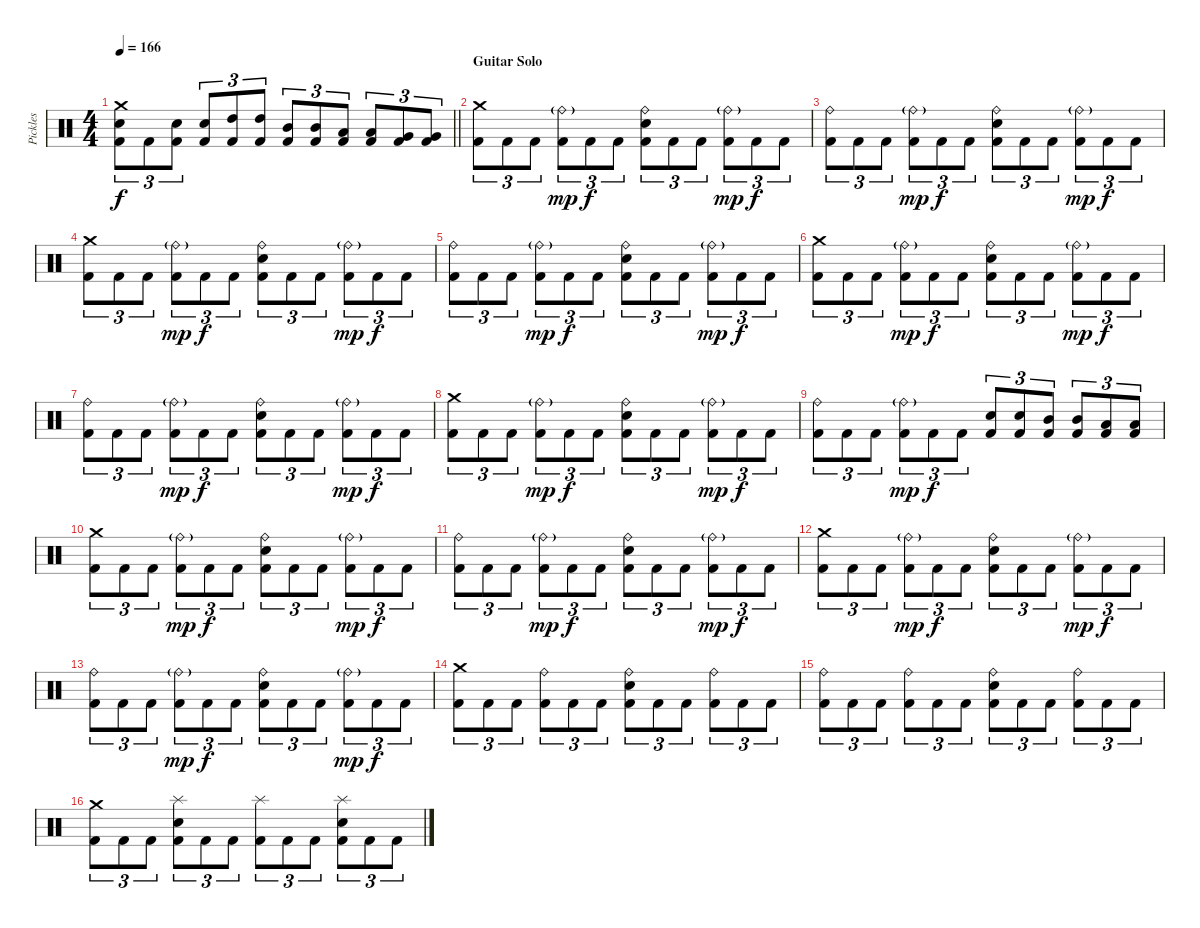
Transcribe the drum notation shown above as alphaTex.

\track ("Pickles" "Pickles") {instrument percussion}
\staff {score}
\articulation defaults
\ts (4 4)
\tempo 166
\clef neutral
\barLineRight lightlight
\ks c
("Crash medium (hit)" "Snare (hit) 2" "Kick (hit) 2").8{tu (3 2) dy f} "Kick (hit) 2".8{tu (3 2)} ("Snare (hit) 2" "Kick (hit) 2").8{tu (3 2)} ("Snare (hit) 2" "Kick (hit) 2").8{tu (3 2)} ("High Tom (hit)" "Kick (hit) 2").8{tu (3 2)} ("High Tom (hit)" "Kick (hit) 2").8{tu (3 2)} ("Mid Tom (hit)" "Kick (hit) 2").8{tu (3 2)} ("Mid Tom (hit)" "Kick (hit) 2").8{tu (3 2)} ("Low Tom (hit)" "Kick (hit) 2").8{tu (3 2)} ("Low Tom (hit)" "Kick (hit) 2").8{tu (3 2)} ("Very Low Tom (hit)" "Kick (hit) 2").8{tu (3 2)} ("Very Low Tom (hit)" "Kick (hit) 2").8{tu (3 2)} |
\section ("" "Guitar Solo")
("Crash medium (hit)" "Kick (hit) 2").8{tu (3 2)} "Kick (hit) 2".8{tu (3 2)} "Kick (hit) 2".8{tu (3 2)} ("Ride (bell)"{g} "Kick (hit) 2").8{tu (3 2) dy mp} "Kick (hit) 2".8{tu (3 2) dy f} "Kick (hit) 2".8{tu (3 2)} ("Ride (bell)" "Snare (hit) 2" "Kick (hit) 2").8{tu (3 2)} "Kick (hit) 2".8{tu (3 2)} "Kick (hit) 2".8{tu (3 2)} ("Ride (bell)"{g} "Kick (hit) 2").8{tu (3 2) dy mp} "Kick (hit) 2".8{tu (3 2) dy f} "Kick (hit) 2".8{tu (3 2)} |
("Ride (bell)" "Kick (hit) 2").8{tu (3 2)} "Kick (hit) 2".8{tu (3 2)} "Kick (hit) 2".8{tu (3 2)} ("Ride (bell)"{g} "Kick (hit) 2").8{tu (3 2) dy mp} "Kick (hit) 2".8{tu (3 2) dy f} "Kick (hit) 2".8{tu (3 2)} ("Ride (bell)" "Snare (hit) 2" "Kick (hit) 2").8{tu (3 2)} "Kick (hit) 2".8{tu (3 2)} "Kick (hit) 2".8{tu (3 2)} ("Ride (bell)"{g} "Kick (hit) 2").8{tu (3 2) dy mp} "Kick (hit) 2".8{tu (3 2) dy f} "Kick (hit) 2".8{tu (3 2)} |
("Crash medium (hit)" "Kick (hit) 2").8{tu (3 2)} "Kick (hit) 2".8{tu (3 2)} "Kick (hit) 2".8{tu (3 2)} ("Ride (bell)"{g} "Kick (hit) 2").8{tu (3 2) dy mp} "Kick (hit) 2".8{tu (3 2) dy f} "Kick (hit) 2".8{tu (3 2)} ("Ride (bell)" "Snare (hit) 2" "Kick (hit) 2").8{tu (3 2)} "Kick (hit) 2".8{tu (3 2)} "Kick (hit) 2".8{tu (3 2)} ("Ride (bell)"{g} "Kick (hit) 2").8{tu (3 2) dy mp} "Kick (hit) 2".8{tu (3 2) dy f} "Kick (hit) 2".8{tu (3 2)} |
("Ride (bell)" "Kick (hit) 2").8{tu (3 2)} "Kick (hit) 2".8{tu (3 2)} "Kick (hit) 2".8{tu (3 2)} ("Ride (bell)"{g} "Kick (hit) 2").8{tu (3 2) dy mp} "Kick (hit) 2".8{tu (3 2) dy f} "Kick (hit) 2".8{tu (3 2)} ("Ride (bell)" "Snare (hit) 2" "Kick (hit) 2").8{tu (3 2)} "Kick (hit) 2".8{tu (3 2)} "Kick (hit) 2".8{tu (3 2)} ("Ride (bell)"{g} "Kick (hit) 2").8{tu (3 2) dy mp} "Kick (hit) 2".8{tu (3 2) dy f} "Kick (hit) 2".8{tu (3 2)} |
("Crash medium (hit)" "Kick (hit) 2").8{tu (3 2)} "Kick (hit) 2".8{tu (3 2)} "Kick (hit) 2".8{tu (3 2)} ("Ride (bell)"{g} "Kick (hit) 2").8{tu (3 2) dy mp} "Kick (hit) 2".8{tu (3 2) dy f} "Kick (hit) 2".8{tu (3 2)} ("Ride (bell)" "Snare (hit) 2" "Kick (hit) 2").8{tu (3 2)} "Kick (hit) 2".8{tu (3 2)} "Kick (hit) 2".8{tu (3 2)} ("Ride (bell)"{g} "Kick (hit) 2").8{tu (3 2) dy mp} "Kick (hit) 2".8{tu (3 2) dy f} "Kick (hit) 2".8{tu (3 2)} |
("Ride (bell)" "Kick (hit) 2").8{tu (3 2)} "Kick (hit) 2".8{tu (3 2)} "Kick (hit) 2".8{tu (3 2)} ("Ride (bell)"{g} "Kick (hit) 2").8{tu (3 2) dy mp} "Kick (hit) 2".8{tu (3 2) dy f} "Kick (hit) 2".8{tu (3 2)} ("Ride (bell)" "Snare (hit) 2" "Kick (hit) 2").8{tu (3 2)} "Kick (hit) 2".8{tu (3 2)} "Kick (hit) 2".8{tu (3 2)} ("Ride (bell)"{g} "Kick (hit) 2").8{tu (3 2) dy mp} "Kick (hit) 2".8{tu (3 2) dy f} "Kick (hit) 2".8{tu (3 2)} |
("Crash medium (hit)" "Kick (hit) 2").8{tu (3 2)} "Kick (hit) 2".8{tu (3 2)} "Kick (hit) 2".8{tu (3 2)} ("Ride (bell)"{g} "Kick (hit) 2").8{tu (3 2) dy mp} "Kick (hit) 2".8{tu (3 2) dy f} "Kick (hit) 2".8{tu (3 2)} ("Ride (bell)" "Snare (hit) 2" "Kick (hit) 2").8{tu (3 2)} "Kick (hit) 2".8{tu (3 2)} "Kick (hit) 2".8{tu (3 2)} ("Ride (bell)"{g} "Kick (hit) 2").8{tu (3 2) dy mp} "Kick (hit) 2".8{tu (3 2) dy f} "Kick (hit) 2".8{tu (3 2)} |
("Ride (bell)" "Kick (hit) 2").8{tu (3 2)} "Kick (hit) 2".8{tu (3 2)} "Kick (hit) 2".8{tu (3 2)} ("Ride (bell)"{g} "Kick (hit) 2").8{tu (3 2) dy mp} "Kick (hit) 2".8{tu (3 2) dy f} "Kick (hit) 2".8{tu (3 2)} ("Snare (hit) 2" "Kick (hit) 2").8{tu (3 2)} ("Snare (hit) 2" "Kick (hit) 2").8{tu (3 2)} ("Mid Tom (hit)" "Kick (hit) 2").8{tu (3 2)} ("Mid Tom (hit)" "Kick (hit) 2").8{tu (3 2)} ("Low Tom (hit)" "Kick (hit) 2").8{tu (3 2)} ("Low Tom (hit)" "Kick (hit) 2").8{tu (3 2)} |
("Crash medium (hit)" "Kick (hit) 2").8{tu (3 2)} "Kick (hit) 2".8{tu (3 2)} "Kick (hit) 2".8{tu (3 2)} ("Ride (bell)"{g} "Kick (hit) 2").8{tu (3 2) dy mp} "Kick (hit) 2".8{tu (3 2) dy f} "Kick (hit) 2".8{tu (3 2)} ("Ride (bell)" "Snare (hit) 2" "Kick (hit) 2").8{tu (3 2)} "Kick (hit) 2".8{tu (3 2)} "Kick (hit) 2".8{tu (3 2)} ("Ride (bell)"{g} "Kick (hit) 2").8{tu (3 2) dy mp} "Kick (hit) 2".8{tu (3 2) dy f} "Kick (hit) 2".8{tu (3 2)} |
("Ride (bell)" "Kick (hit) 2").8{tu (3 2)} "Kick (hit) 2".8{tu (3 2)} "Kick (hit) 2".8{tu (3 2)} ("Ride (bell)"{g} "Kick (hit) 2").8{tu (3 2) dy mp} "Kick (hit) 2".8{tu (3 2) dy f} "Kick (hit) 2".8{tu (3 2)} ("Ride (bell)" "Snare (hit) 2" "Kick (hit) 2").8{tu (3 2)} "Kick (hit) 2".8{tu (3 2)} "Kick (hit) 2".8{tu (3 2)} ("Ride (bell)"{g} "Kick (hit) 2").8{tu (3 2) dy mp} "Kick (hit) 2".8{tu (3 2) dy f} "Kick (hit) 2".8{tu (3 2)} |
("Crash medium (hit)" "Kick (hit) 2").8{tu (3 2)} "Kick (hit) 2".8{tu (3 2)} "Kick (hit) 2".8{tu (3 2)} ("Ride (bell)"{g} "Kick (hit) 2").8{tu (3 2) dy mp} "Kick (hit) 2".8{tu (3 2) dy f} "Kick (hit) 2".8{tu (3 2)} ("Ride (bell)" "Snare (hit) 2" "Kick (hit) 2").8{tu (3 2)} "Kick (hit) 2".8{tu (3 2)} "Kick (hit) 2".8{tu (3 2)} ("Ride (bell)"{g} "Kick (hit) 2").8{tu (3 2) dy mp} "Kick (hit) 2".8{tu (3 2) dy f} "Kick (hit) 2".8{tu (3 2)} |
("Ride (bell)" "Kick (hit) 2").8{tu (3 2)} "Kick (hit) 2".8{tu (3 2)} "Kick (hit) 2".8{tu (3 2)} ("Ride (bell)"{g} "Kick (hit) 2").8{tu (3 2) dy mp} "Kick (hit) 2".8{tu (3 2) dy f} "Kick (hit) 2".8{tu (3 2)} ("Ride (bell)" "Snare (hit) 2" "Kick (hit) 2").8{tu (3 2)} "Kick (hit) 2".8{tu (3 2)} "Kick (hit) 2".8{tu (3 2)} ("Ride (bell)"{g} "Kick (hit) 2").8{tu (3 2) dy mp} "Kick (hit) 2".8{tu (3 2) dy f} "Kick (hit) 2".8{tu (3 2)} |
("Crash medium (hit)" "Kick (hit) 2").8{tu (3 2)} "Kick (hit) 2".8{tu (3 2)} "Kick (hit) 2".8{tu (3 2)} ("Ride (bell)" "Kick (hit) 2").8{tu (3 2)} "Kick (hit) 2".8{tu (3 2)} "Kick (hit) 2".8{tu (3 2)} ("Ride (bell)" "Snare (hit) 2" "Kick (hit) 2").8{tu (3 2)} "Kick (hit) 2".8{tu (3 2)} "Kick (hit) 2".8{tu (3 2)} ("Ride (bell)" "Kick (hit) 2").8{tu (3 2)} "Kick (hit) 2".8{tu (3 2)} "Kick (hit) 2".8{tu (3 2)} |
("Ride (bell)" "Kick (hit) 2").8{tu (3 2)} "Kick (hit) 2".8{tu (3 2)} "Kick (hit) 2".8{tu (3 2)} ("Ride (bell)" "Kick (hit) 2").8{tu (3 2)} "Kick (hit) 2".8{tu (3 2)} "Kick (hit) 2".8{tu (3 2)} ("Ride (bell)" "Snare (hit) 2" "Kick (hit) 2").8{tu (3 2)} "Kick (hit) 2".8{tu (3 2)} "Kick (hit) 2".8{tu (3 2)} ("Ride (bell)" "Kick (hit) 2").8{tu (3 2)} "Kick (hit) 2".8{tu (3 2)} "Kick (hit) 2".8{tu (3 2)} |
("Crash medium (hit)" "Kick (hit) 2").8{tu (3 2)} "Kick (hit) 2".8{tu (3 2)} "Kick (hit) 2".8{tu (3 2)} ("Splash (hit)" "Snare (hit) 2" "Kick (hit) 2").8{tu (3 2)} "Kick (hit) 2".8{tu (3 2)} "Kick (hit) 2".8{tu (3 2)} ("Splash (hit)" "Kick (hit) 2").8{tu (3 2)} "Kick (hit) 2".8{tu (3 2)} "Kick (hit) 2".8{tu (3 2)} ("Splash (hit)" "Snare (hit) 2" "Kick (hit) 2").8{tu (3 2)} "Kick (hit) 2".8{tu (3 2)} "Kick (hit) 2".8{tu (3 2)}
